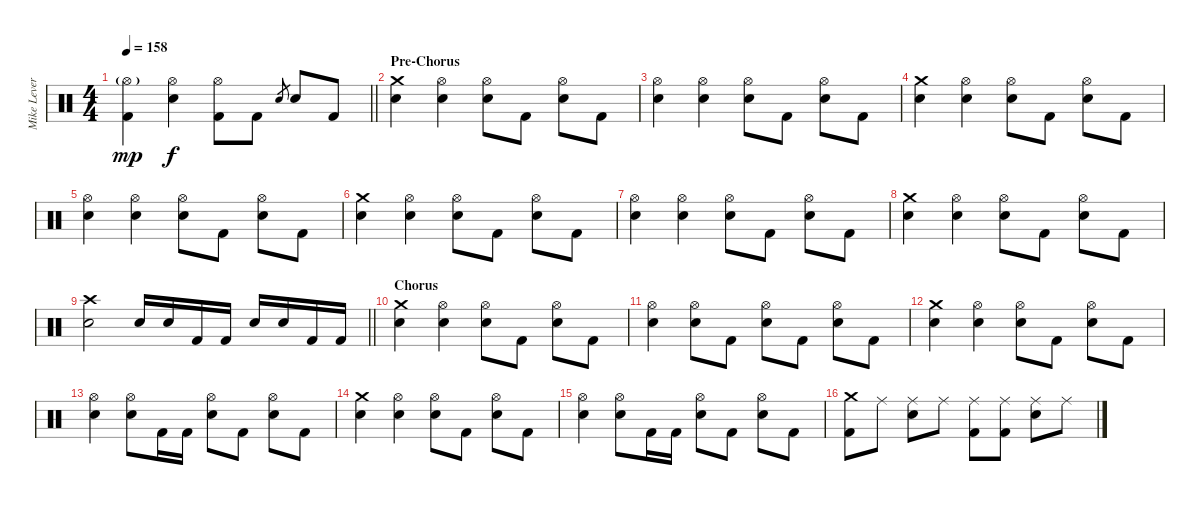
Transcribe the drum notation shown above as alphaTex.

\track ("Mike Leverence - Drums" "Mike Lever") {instrument percussion}
\staff {score}
\articulation defaults
\ts (4 4)
\tempo 158
\clef neutral
\barLineRight lightlight
\ks c
("Hi-Hat (open)"{g} "Kick (hit) 2").4{dy mp} ("Hi-Hat (open)" "Electric Snare (hit)").4{dy f} ("Hi-Hat (open)" "Kick (hit) 2").8 "Kick (hit) 2".8 "Electric Snare (hit)".8{gr} "Electric Snare (hit)".8 "Kick (hit) 2".8 |
\section ("" "Pre-Chorus")
("Crash medium (hit)" "Electric Snare (hit)").4 ("Hi-Hat (open)" "Electric Snare (hit)").4 ("Hi-Hat (open)" "Electric Snare (hit)").8 "Kick (hit) 2".8 ("Hi-Hat (open)" "Electric Snare (hit)").8 "Kick (hit) 2".8 |
("Hi-Hat (open)" "Electric Snare (hit)").4 ("Hi-Hat (open)" "Electric Snare (hit)").4 ("Hi-Hat (open)" "Electric Snare (hit)").8 "Kick (hit) 2".8 ("Hi-Hat (open)" "Electric Snare (hit)").8 "Kick (hit) 2".8 |
("Crash medium (hit)" "Electric Snare (hit)").4 ("Hi-Hat (open)" "Electric Snare (hit)").4 ("Hi-Hat (open)" "Electric Snare (hit)").8 "Kick (hit) 2".8 ("Hi-Hat (open)" "Electric Snare (hit)").8 "Kick (hit) 2".8 |
("Hi-Hat (open)" "Electric Snare (hit)").4 ("Hi-Hat (open)" "Electric Snare (hit)").4 ("Hi-Hat (open)" "Electric Snare (hit)").8 "Kick (hit) 2".8 ("Hi-Hat (open)" "Electric Snare (hit)").8 "Kick (hit) 2".8 |
("Crash medium (hit)" "Electric Snare (hit)").4 ("Hi-Hat (open)" "Electric Snare (hit)").4 ("Hi-Hat (open)" "Electric Snare (hit)").8 "Kick (hit) 2".8 ("Hi-Hat (open)" "Electric Snare (hit)").8 "Kick (hit) 2".8 |
("Hi-Hat (open)" "Electric Snare (hit)").4 ("Hi-Hat (open)" "Electric Snare (hit)").4 ("Hi-Hat (open)" "Electric Snare (hit)").8 "Kick (hit) 2".8 ("Hi-Hat (open)" "Electric Snare (hit)").8 "Kick (hit) 2".8 |
("Crash medium (hit)" "Electric Snare (hit)").4 ("Hi-Hat (open)" "Electric Snare (hit)").4 ("Hi-Hat (open)" "Electric Snare (hit)").8 "Kick (hit) 2".8 ("Hi-Hat (open)" "Electric Snare (hit)").8 "Kick (hit) 2".8 |
\barLineRight lightlight
("Crash high (hit)" "Electric Snare (hit)").2 "Electric Snare (hit)".16 "Electric Snare (hit)".16 "Kick (hit) 2".16 "Kick (hit) 2".16 "Electric Snare (hit)".16 "Electric Snare (hit)".16 "Kick (hit) 2".16 "Kick (hit) 2".16 |
\section ("" "Chorus")
("Crash medium (hit)" "Electric Snare (hit)").4 ("Hi-Hat (open)" "Electric Snare (hit)").4 ("Hi-Hat (open)" "Electric Snare (hit)").8 "Kick (hit) 2".8 ("Hi-Hat (open)" "Electric Snare (hit)").8 "Kick (hit) 2".8 |
("Hi-Hat (open)" "Electric Snare (hit)").4 ("Hi-Hat (open)" "Electric Snare (hit)").8 "Kick (hit) 2".8 ("Hi-Hat (open)" "Electric Snare (hit)").8 "Kick (hit) 2".8 ("Hi-Hat (open)" "Electric Snare (hit)").8 "Kick (hit) 2".8 |
("Crash medium (hit)" "Electric Snare (hit)").4 ("Hi-Hat (open)" "Electric Snare (hit)").4 ("Hi-Hat (open)" "Electric Snare (hit)").8 "Kick (hit) 2".8 ("Hi-Hat (open)" "Electric Snare (hit)").8 "Kick (hit) 2".8 |
("Hi-Hat (open)" "Electric Snare (hit)").4 ("Hi-Hat (open)" "Electric Snare (hit)").8 "Kick (hit) 2".16 "Kick (hit) 2".16 ("Hi-Hat (open)" "Electric Snare (hit)").8 "Kick (hit) 2".8 ("Hi-Hat (open)" "Electric Snare (hit)").8 "Kick (hit) 2".8 |
("Crash medium (hit)" "Electric Snare (hit)").4 ("Hi-Hat (open)" "Electric Snare (hit)").4 ("Hi-Hat (open)" "Electric Snare (hit)").8 "Kick (hit) 2".8 ("Hi-Hat (open)" "Electric Snare (hit)").8 "Kick (hit) 2".8 |
("Hi-Hat (open)" "Electric Snare (hit)").4 ("Hi-Hat (open)" "Electric Snare (hit)").8 "Kick (hit) 2".16 "Kick (hit) 2".16 ("Hi-Hat (open)" "Electric Snare (hit)").8 "Kick (hit) 2".8 ("Hi-Hat (open)" "Electric Snare (hit)").8 "Kick (hit) 2".8 |
("Crash medium (hit)" "Kick (hit) 2").8 "Ride (middle)".8 ("Ride (middle)" "Electric Snare (hit)").8 "Ride (middle)".8 ("Ride (middle)" "Kick (hit) 2").8 ("Ride (middle)" "Kick (hit) 2").8 ("Ride (middle)" "Electric Snare (hit)").8 "Ride (middle)".8
